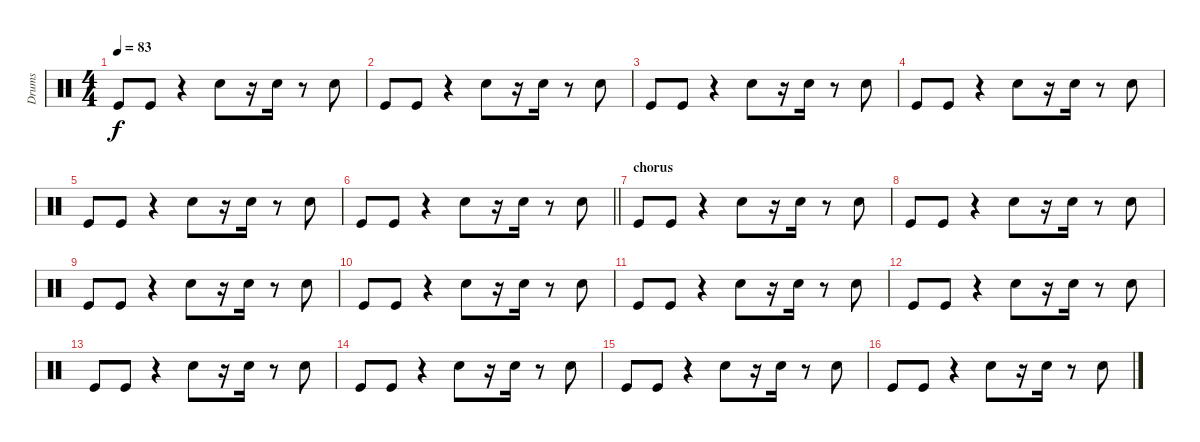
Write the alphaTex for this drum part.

\track ("Drums" "Drums") {instrument percussion}
\staff {score}
\articulation defaults
\ts (4 4)
\tempo 83
\clef neutral
\ks c "Kick (hit)".8{dy f} "Kick (hit)".8
r.4 "Snare (hit) 2".8 r.16 "Electric Snare (hit)".16 r.8 "Electric Snare (hit)".8 |
"Kick (hit)".8 "Kick (hit)".8 r.4 "Snare (hit) 2".8 r.16 "Electric Snare (hit)".16 r.8 "Electric Snare (hit)".8 |
"Kick (hit)".8 "Kick (hit)".8 r.4 "Snare (hit) 2".8 r.16 "Electric Snare (hit)".16 r.8 "Electric Snare (hit)".8 |
"Kick (hit)".8 "Kick (hit)".8 r.4 "Snare (hit) 2".8 r.16 "Electric Snare (hit)".16 r.8 "Electric Snare (hit)".8 |
"Kick (hit)".8 "Kick (hit)".8 r.4 "Snare (hit) 2".8 r.16 "Electric Snare (hit)".16 r.8 "Electric Snare (hit)".8 |
\barLineRight lightlight "Kick (hit)".8 "Kick (hit)".8
r.4 "Snare (hit) 2".8 r.16 "Electric Snare (hit)".16 r.8 "Electric Snare (hit)".8 |
\section ("" "chorus")
"Kick (hit)".8 "Kick (hit)".8 r.4 "Snare (hit) 2".8 r.16 "Electric Snare (hit)".16 r.8 "Electric Snare (hit)".8 |
"Kick (hit)".8 "Kick (hit)".8 r.4 "Snare (hit) 2".8 r.16 "Electric Snare (hit)".16 r.8 "Electric Snare (hit)".8 |
"Kick (hit)".8 "Kick (hit)".8 r.4 "Snare (hit) 2".8 r.16 "Electric Snare (hit)".16 r.8 "Electric Snare (hit)".8 |
"Kick (hit)".8 "Kick (hit)".8 r.4 "Snare (hit) 2".8 r.16 "Electric Snare (hit)".16 r.8 "Electric Snare (hit)".8 |
"Kick (hit)".8 "Kick (hit)".8 r.4 "Snare (hit) 2".8 r.16 "Electric Snare (hit)".16 r.8 "Electric Snare (hit)".8 |
"Kick (hit)".8 "Kick (hit)".8 r.4 "Snare (hit) 2".8 r.16 "Electric Snare (hit)".16 r.8 "Electric Snare (hit)".8 |
"Kick (hit)".8 "Kick (hit)".8 r.4 "Snare (hit) 2".8 r.16 "Electric Snare (hit)".16 r.8 "Electric Snare (hit)".8 |
"Kick (hit)".8 "Kick (hit)".8 r.4 "Snare (hit) 2".8 r.16 "Electric Snare (hit)".16 r.8 "Electric Snare (hit)".8 |
"Kick (hit)".8 "Kick (hit)".8 r.4 "Snare (hit) 2".8 r.16 "Electric Snare (hit)".16 r.8 "Electric Snare (hit)".8 |
"Kick (hit)".8 "Kick (hit)".8 r.4 "Snare (hit) 2".8 r.16 "Electric Snare (hit)".16 r.8 "Electric Snare (hit)".8
